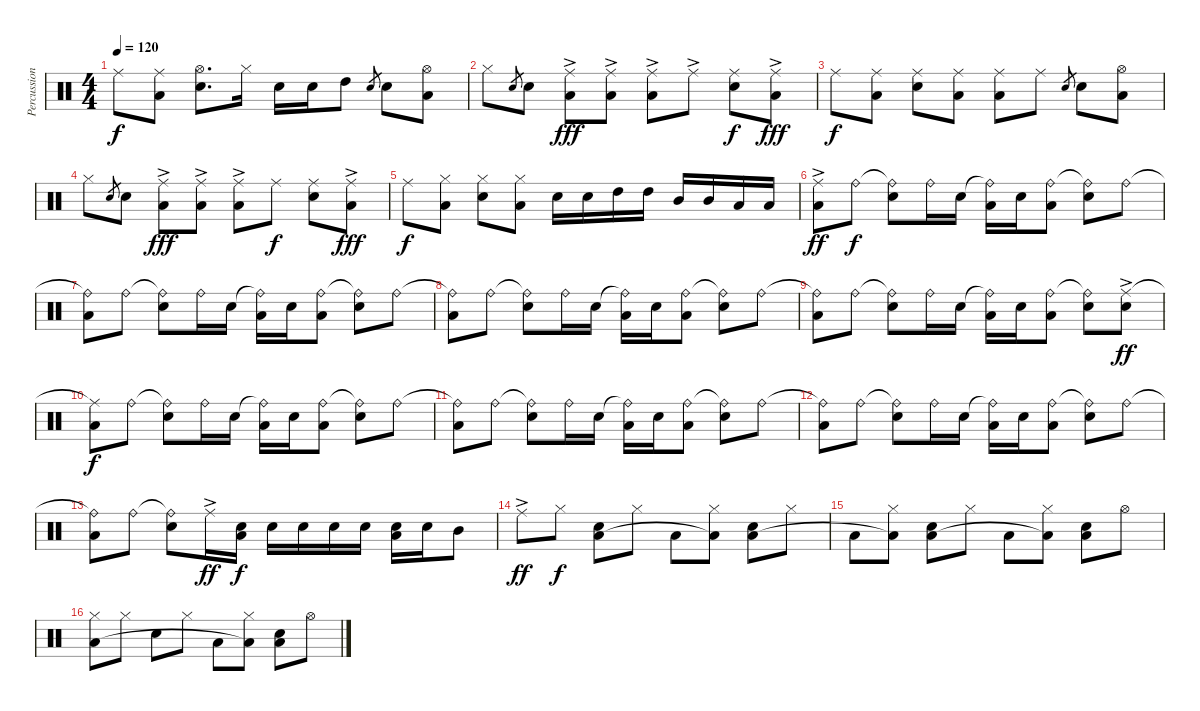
\track ("Percussion" "Percussion") {instrument percussion}
\staff {score}
\articulation defaults
\ts (4 4)
\tempo 120
\clef neutral
\ks c "Ride (middle)".8{dy f}
("Ride (middle)" "Low Floor Tom (hit)").8 ("Hi-Hat (open)" "Snare (hit) 2").8{d} "Hi-Hat (closed)".16 "Snare (hit) 2".16 "Snare (hit) 2".16 "High Tom (hit)".8 "Snare (hit) 2".8{gr} "Snare (hit) 2".8 ("Hi-Hat (open)" "Low Floor Tom (hit)").8 |
"Hi-Hat (closed)".8 "Snare (hit) 2".8{gr} "Snare (hit) 2".8 ("Ride (middle)"{ac} "Low Floor Tom (hit)").8{dy fff} ("Ride (middle)"{ac} "Low Floor Tom (hit)").8 ("Ride (middle)"{ac} "Low Floor Tom (hit)").8 "Ride (middle)"{ac}.8 ("Ride (middle)" "Snare (hit) 2").8{dy f} ("Ride (middle)"{ac} "Low Floor Tom (hit)").8{dy fff} |
"Ride (middle)".8{dy f} ("Ride (middle)" "Low Floor Tom (hit)").8 ("Ride (middle)" "Snare (hit) 2").8 ("Ride (middle)" "Low Floor Tom (hit)").8 ("Ride (middle)" "Low Floor Tom (hit)").8 "Ride (middle)".8 "Snare (hit) 2".8{gr} "Snare (hit) 2".8 ("Hi-Hat (open)" "Low Floor Tom (hit)").8 |
"Hi-Hat (closed)".8 "Snare (hit) 2".8{gr} "Snare (hit) 2".8 ("Ride (middle)"{ac} "Low Floor Tom (hit)").8{dy fff} ("Ride (middle)"{ac} "Low Floor Tom (hit)").8 ("Ride (middle)"{ac} "Low Floor Tom (hit)").8 "Ride (middle)".8{dy f} ("Ride (middle)" "Snare (hit) 2").8 ("Ride (middle)"{ac} "Low Floor Tom (hit)").8{dy fff} |
"Ride (middle)".8{dy f} ("Hi-Hat (closed)" "Low Floor Tom (hit)").8 ("Hi-Hat (closed)" "Snare (hit) 2").8 ("Hi-Hat (closed)" "Low Floor Tom (hit)").8 "Snare (hit) 2".16 "Snare (hit) 2".16 "High Tom (hit)".16 "High Tom (hit)".16 "Mid Tom (hit)".16 "Mid Tom (hit)".16 "Low Tom (hit)".16 "Low Tom (hit)".16 |
("Ride (middle)"{ac} "Low Floor Tom (hit)").8{dy ff} "Ride (bell)".8{dy f} ("Ride (bell)"{t} "Snare (hit) 2").8 "Ride (bell)".16 "Snare (hit) 2".16 ("Ride (bell)"{t} "Low Floor Tom (hit)").16 "Snare (hit) 2".16 ("Ride (bell)" "Low Floor Tom (hit)").8 ("Ride (bell)"{t} "Snare (hit) 2").8 "Ride (bell)".8 |
("Ride (bell)"{t} "Low Floor Tom (hit)").8 "Ride (bell)".8 ("Ride (bell)"{t} "Snare (hit) 2").8 "Ride (bell)".16 "Snare (hit) 2".16 ("Ride (bell)"{t} "Low Floor Tom (hit)").16 "Snare (hit) 2".16 ("Ride (bell)" "Low Floor Tom (hit)").8 ("Ride (bell)"{t} "Snare (hit) 2").8 "Ride (bell)".8 |
("Ride (bell)"{t} "Low Floor Tom (hit)").8 "Ride (bell)".8 ("Ride (bell)"{t} "Snare (hit) 2").8 "Ride (bell)".16 "Snare (hit) 2".16 ("Ride (bell)"{t} "Low Floor Tom (hit)").16 "Snare (hit) 2".16 ("Ride (bell)" "Low Floor Tom (hit)").8 ("Ride (bell)"{t} "Snare (hit) 2").8 "Ride (bell)".8 |
("Ride (bell)"{t} "Low Floor Tom (hit)").8 "Ride (bell)".8 ("Ride (bell)"{t} "Snare (hit) 2").8 "Ride (bell)".16 "Snare (hit) 2".16 ("Ride (bell)"{t} "Low Floor Tom (hit)").16 "Snare (hit) 2".16 ("Ride (bell)" "Low Floor Tom (hit)").8 ("Ride (bell)"{t} "Snare (hit) 2").8 ("Ride (middle)"{ac} "Snare (hit) 2").8{dy ff} |
("Ride (middle)"{t} "Low Floor Tom (hit)").8{dy f} "Ride (bell)".8 ("Ride (bell)"{t} "Snare (hit) 2").8 "Ride (bell)".16 "Snare (hit) 2".16 ("Ride (bell)"{t} "Low Floor Tom (hit)").16 "Snare (hit) 2".16 ("Ride (bell)" "Low Floor Tom (hit)").8 ("Ride (bell)"{t} "Snare (hit) 2").8 "Ride (bell)".8 |
("Ride (bell)"{t} "Low Floor Tom (hit)").8 "Ride (bell)".8 ("Ride (bell)"{t} "Snare (hit) 2").8 "Ride (bell)".16 "Snare (hit) 2".16 ("Ride (bell)"{t} "Low Floor Tom (hit)").16 "Snare (hit) 2".16 ("Ride (bell)" "Low Floor Tom (hit)").8 ("Ride (bell)"{t} "Snare (hit) 2").8 "Ride (bell)".8 |
("Ride (bell)"{t} "Low Floor Tom (hit)").8 "Ride (bell)".8 ("Ride (bell)"{t} "Snare (hit) 2").8 "Ride (bell)".16 "Snare (hit) 2".16 ("Ride (bell)"{t} "Low Floor Tom (hit)").16 "Snare (hit) 2".16 ("Ride (bell)" "Low Floor Tom (hit)").8 ("Ride (bell)"{t} "Snare (hit) 2").8 "Ride (bell)".8 |
("Ride (bell)"{t} "Low Floor Tom (hit)").8 "Ride (bell)".8 ("Ride (bell)"{t} "Snare (hit) 2").8 "Ride (middle)"{ac}.16{dy ff} ("Snare (hit) 2" "Low Floor Tom (hit)").16{dy f} "Snare (hit) 2".16 "Snare (hit) 2".16 "Snare (hit) 2".16 "Snare (hit) 2".16 ("Snare (hit) 2" "Low Floor Tom (hit)").16 "Snare (hit) 2".16 "Mid Tom (hit)".8 |
"Ride (middle)"{ac}.8{dy ff} "Hi-Hat (closed)".8{dy f} ("Snare (hit) 2" "Low Floor Tom (hit)").8 "Hi-Hat (closed)".8 "Low Floor Tom (hit)".8 ("Hi-Hat (closed)" "Low Floor Tom (hit)"{t}).8 ("Snare (hit) 2" "Low Floor Tom (hit)").8 "Hi-Hat (closed)".8 |
"Low Floor Tom (hit)".8 ("Hi-Hat (closed)" "Low Floor Tom (hit)"{t}).8 ("Snare (hit) 2" "Low Floor Tom (hit)").8 "Hi-Hat (closed)".8 "Low Floor Tom (hit)".8 ("Hi-Hat (closed)" "Low Floor Tom (hit)"{t}).8 ("Snare (hit) 2" "Low Floor Tom (hit)").8 "Hi-Hat (open)".8 |
("Hi-Hat (closed)" "Low Floor Tom (hit)").8 "Hi-Hat (closed)".8 "Snare (hit) 2".8 "Hi-Hat (closed)".8 "Low Floor Tom (hit)".8 ("Hi-Hat (closed)" "Low Floor Tom (hit)"{t}).8 ("Snare (hit) 2" "Low Floor Tom (hit)").8 "Hi-Hat (open)".8
